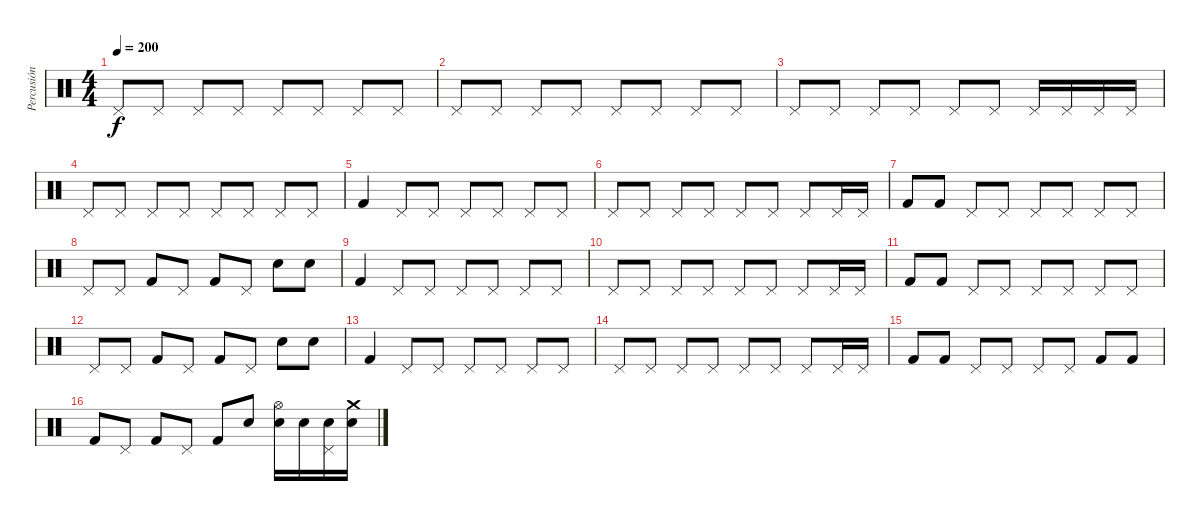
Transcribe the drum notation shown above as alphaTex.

\track ("Percusión" "Percusión") {instrument percussion}
\staff {score}
\articulation defaults
\ts (4 4)
\tempo 200
\clef neutral
\ks c "Pedal Hi-Hat (hit)".8{dy f} "Pedal Hi-Hat (hit)".8 "Pedal Hi-Hat (hit)".8 "Pedal Hi-Hat (hit)".8 "Pedal Hi-Hat (hit)".8 "Pedal Hi-Hat (hit)".8 "Pedal Hi-Hat (hit)".8 "Pedal Hi-Hat (hit)".8
|
"Pedal Hi-Hat (hit)".8 "Pedal Hi-Hat (hit)".8 "Pedal Hi-Hat (hit)".8 "Pedal Hi-Hat (hit)".8 "Pedal Hi-Hat (hit)".8 "Pedal Hi-Hat (hit)".8 "Pedal Hi-Hat (hit)".8 "Pedal Hi-Hat (hit)".8 |
"Pedal Hi-Hat (hit)".8 "Pedal Hi-Hat (hit)".8 "Pedal Hi-Hat (hit)".8 "Pedal Hi-Hat (hit)".8 "Pedal Hi-Hat (hit)".8 "Pedal Hi-Hat (hit)".8 "Pedal Hi-Hat (hit)".16 "Pedal Hi-Hat (hit)".16 "Pedal Hi-Hat (hit)".16 "Pedal Hi-Hat (hit)".16 |
"Pedal Hi-Hat (hit)".8 "Pedal Hi-Hat (hit)".8 "Pedal Hi-Hat (hit)".8 "Pedal Hi-Hat (hit)".8 "Pedal Hi-Hat (hit)".8 "Pedal Hi-Hat (hit)".8 "Pedal Hi-Hat (hit)".8 "Pedal Hi-Hat (hit)".8 |
"Kick (hit) 2".4 "Pedal Hi-Hat (hit)".8 "Pedal Hi-Hat (hit)".8 "Pedal Hi-Hat (hit)".8 "Pedal Hi-Hat (hit)".8 "Pedal Hi-Hat (hit)".8 "Pedal Hi-Hat (hit)".8 |
"Pedal Hi-Hat (hit)".8 "Pedal Hi-Hat (hit)".8 "Pedal Hi-Hat (hit)".8 "Pedal Hi-Hat (hit)".8 "Pedal Hi-Hat (hit)".8 "Pedal Hi-Hat (hit)".8 "Pedal Hi-Hat (hit)".8 "Pedal Hi-Hat (hit)".16 "Pedal Hi-Hat (hit)".16 |
"Kick (hit) 2".8 "Kick (hit) 2".8 "Pedal Hi-Hat (hit)".8 "Pedal Hi-Hat (hit)".8 "Pedal Hi-Hat (hit)".8 "Pedal Hi-Hat (hit)".8 "Pedal Hi-Hat (hit)".8 "Pedal Hi-Hat (hit)".8 |
"Pedal Hi-Hat (hit)".8 "Pedal Hi-Hat (hit)".8 "Kick (hit) 2".8 "Pedal Hi-Hat (hit)".8 "Kick (hit) 2".8 "Pedal Hi-Hat (hit)".8 "Electric Snare (hit)".8 "Electric Snare (hit)".8 |
"Kick (hit) 2".4 "Pedal Hi-Hat (hit)".8 "Pedal Hi-Hat (hit)".8 "Pedal Hi-Hat (hit)".8 "Pedal Hi-Hat (hit)".8 "Pedal Hi-Hat (hit)".8 "Pedal Hi-Hat (hit)".8 |
"Pedal Hi-Hat (hit)".8 "Pedal Hi-Hat (hit)".8 "Pedal Hi-Hat (hit)".8 "Pedal Hi-Hat (hit)".8 "Pedal Hi-Hat (hit)".8 "Pedal Hi-Hat (hit)".8 "Pedal Hi-Hat (hit)".8 "Pedal Hi-Hat (hit)".16 "Pedal Hi-Hat (hit)".16 |
"Kick (hit) 2".8 "Kick (hit) 2".8 "Pedal Hi-Hat (hit)".8 "Pedal Hi-Hat (hit)".8 "Pedal Hi-Hat (hit)".8 "Pedal Hi-Hat (hit)".8 "Pedal Hi-Hat (hit)".8 "Pedal Hi-Hat (hit)".8 |
"Pedal Hi-Hat (hit)".8 "Pedal Hi-Hat (hit)".8 "Kick (hit) 2".8 "Pedal Hi-Hat (hit)".8 "Kick (hit) 2".8 "Pedal Hi-Hat (hit)".8 "Electric Snare (hit)".8 "Electric Snare (hit)".8 |
"Kick (hit) 2".4 "Pedal Hi-Hat (hit)".8 "Pedal Hi-Hat (hit)".8 "Pedal Hi-Hat (hit)".8 "Pedal Hi-Hat (hit)".8 "Pedal Hi-Hat (hit)".8 "Pedal Hi-Hat (hit)".8 |
"Pedal Hi-Hat (hit)".8 "Pedal Hi-Hat (hit)".8 "Pedal Hi-Hat (hit)".8 "Pedal Hi-Hat (hit)".8 "Pedal Hi-Hat (hit)".8 "Pedal Hi-Hat (hit)".8 "Pedal Hi-Hat (hit)".8 "Pedal Hi-Hat (hit)".16 "Pedal Hi-Hat (hit)".16 |
"Kick (hit) 2".8 "Kick (hit) 2".8 "Pedal Hi-Hat (hit)".8 "Pedal Hi-Hat (hit)".8 "Pedal Hi-Hat (hit)".8 "Pedal Hi-Hat (hit)".8 "Kick (hit) 2".8 "Kick (hit) 2".8 |
"Kick (hit) 2".8 "Pedal Hi-Hat (hit)".8 "Kick (hit) 2".8 "Pedal Hi-Hat (hit)".8 "Kick (hit) 2".8 "Electric Snare (hit)".8 ("Electric Snare (hit)" "Hi-Hat (open)").16 "Electric Snare (hit)".16 ("Electric Snare (hit)" "Pedal Hi-Hat (hit)").16 ("Electric Snare (hit)" "Crash medium (hit)").16
